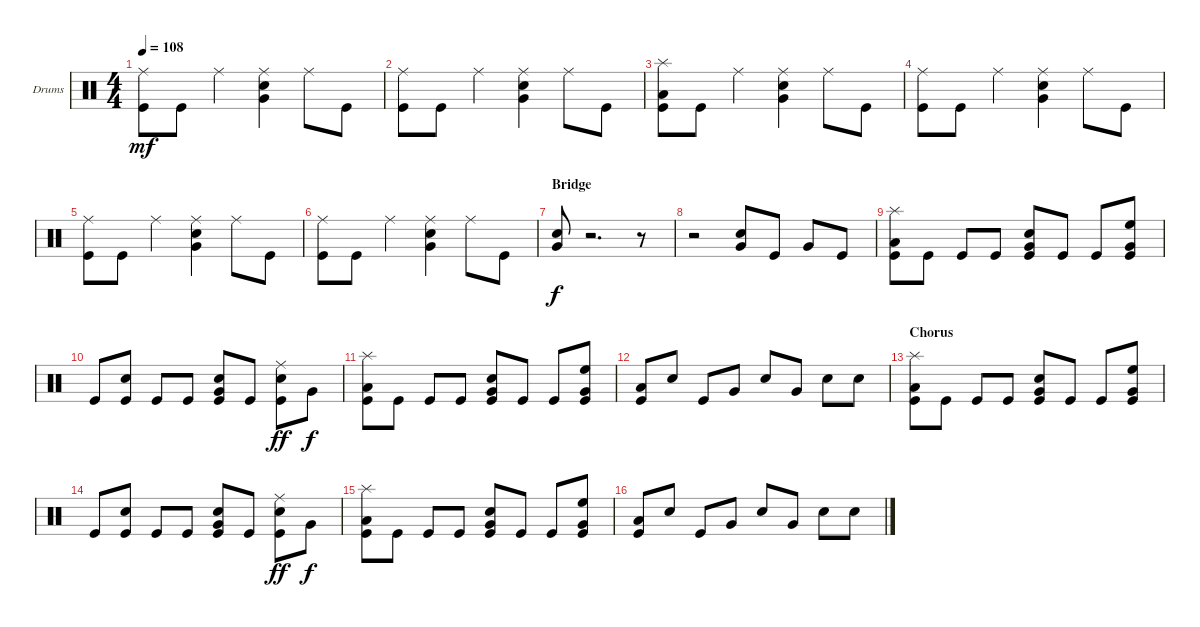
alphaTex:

\bracketExtendMode groupsimilarinstruments
\firstSystemTrackNameOrientation horizontal
\otherSystemsTrackNameOrientation horizontal
\track ("Drumkit" "Drums") {instrument percussion}
\staff {score}
\articulation defaults
\ts (4 4)
\tempo 108
\clef neutral
\ks c
("Ride (middle)" "Kick (hit)").8{dy mf} "Kick (hit)".8 "Ride (middle)".4 ("Snare (hit) 2" "Ride (middle)" "Very Low Tom (hit)").4 "Ride (middle)".8 "Kick (hit)".8 |
("Ride (middle)" "Kick (hit)").8 "Kick (hit)".8 "Ride (middle)".4 ("Snare (hit) 2" "Ride (middle)" "Very Low Tom (hit)").4 "Ride (middle)".8 "Kick (hit)".8 |
("Kick (hit)" "Low Tom (hit)" "Splash (hit)").8 "Kick (hit)".8 "Ride (middle)".4 ("Snare (hit) 2" "Ride (middle)" "Very Low Tom (hit)").4 "Ride (middle)".8 "Kick (hit)".8 |
("Ride (middle)" "Kick (hit)").8 "Kick (hit)".8 "Ride (middle)".4 ("Snare (hit) 2" "Ride (middle)" "Very Low Tom (hit)").4 "Ride (middle)".8 "Kick (hit)".8 |
("Ride (middle)" "Kick (hit)").8 "Kick (hit)".8 "Ride (middle)".4 ("Snare (hit) 2" "Ride (middle)" "Very Low Tom (hit)").4 "Ride (middle)".8 "Kick (hit)".8 |
("Ride (middle)" "Kick (hit)").8 "Kick (hit)".8 "Ride (middle)".4 ("Snare (hit) 2" "Ride (middle)" "Very Low Tom (hit)").4 "Ride (middle)".8 "Kick (hit)".8 |
\section ("" "Bridge")
("Snare (hit) 2" "Very Low Tom (hit)").8{dy f} r.2{d} r.8 |
r.2 ("Snare (hit) 2" "Very Low Tom (hit)").8 "Kick (hit)".8 "Very Low Tom (hit)".8 "Kick (hit)".8 |
("Low Tom (hit)" "Kick (hit)" "Splash (hit)").8 "Kick (hit)".8 "Kick (hit)".8 "Kick (hit)".8 ("Snare (hit) 2" "Very Low Tom (hit)" "Kick (hit)").8 "Kick (hit)".8 "Kick (hit)".8 ("Kick (hit)" "Very Low Tom (hit)" "High Floor Tom (hit)").8 |
"Kick (hit)".8 ("Kick (hit)" "Snare (hit) 2").8 "Kick (hit)".8 "Kick (hit)".8 ("Snare (hit) 2" "Very Low Tom (hit)" "Kick (hit)").8 "Kick (hit)".8 ("Snare (hit) 2" "Kick (hit)" "Ride (middle)").8{dy ff} "Very Low Tom (hit)".8{dy f} |
("Low Tom (hit)" "Kick (hit)" "Splash (hit)").8 "Kick (hit)".8 "Kick (hit)".8 "Kick (hit)".8 ("Snare (hit) 2" "Very Low Tom (hit)" "Kick (hit)").8 "Kick (hit)".8 "Kick (hit)".8 ("Kick (hit)" "Very Low Tom (hit)" "High Floor Tom (hit)").8 |
("Kick (hit)" "Low Tom (hit)").8 "Snare (hit) 2".8 "Kick (hit)".8 "Very Low Tom (hit)".8 "Snare (hit) 2".8 "Very Low Tom (hit)".8 "Snare (hit) 2".8 "Snare (hit) 2".8 |
\section ("" "Chorus")
("Low Tom (hit)" "Kick (hit)" "Splash (hit)").8 "Kick (hit)".8 "Kick (hit)".8 "Kick (hit)".8 ("Snare (hit) 2" "Very Low Tom (hit)" "Kick (hit)").8 "Kick (hit)".8 "Kick (hit)".8 ("Kick (hit)" "Very Low Tom (hit)" "High Floor Tom (hit)").8 |
"Kick (hit)".8 ("Kick (hit)" "Snare (hit) 2").8 "Kick (hit)".8 "Kick (hit)".8 ("Snare (hit) 2" "Very Low Tom (hit)" "Kick (hit)").8 "Kick (hit)".8 ("Snare (hit) 2" "Kick (hit)" "Ride (middle)").8{dy ff} "Very Low Tom (hit)".8{dy f} |
("Low Tom (hit)" "Kick (hit)" "Splash (hit)").8 "Kick (hit)".8 "Kick (hit)".8 "Kick (hit)".8 ("Snare (hit) 2" "Very Low Tom (hit)" "Kick (hit)").8 "Kick (hit)".8 "Kick (hit)".8 ("Kick (hit)" "Very Low Tom (hit)" "High Floor Tom (hit)").8 |
("Kick (hit)" "Low Tom (hit)").8 "Snare (hit) 2".8 "Kick (hit)".8 "Very Low Tom (hit)".8 "Snare (hit) 2".8 "Very Low Tom (hit)".8 "Snare (hit) 2".8 "Snare (hit) 2".8
